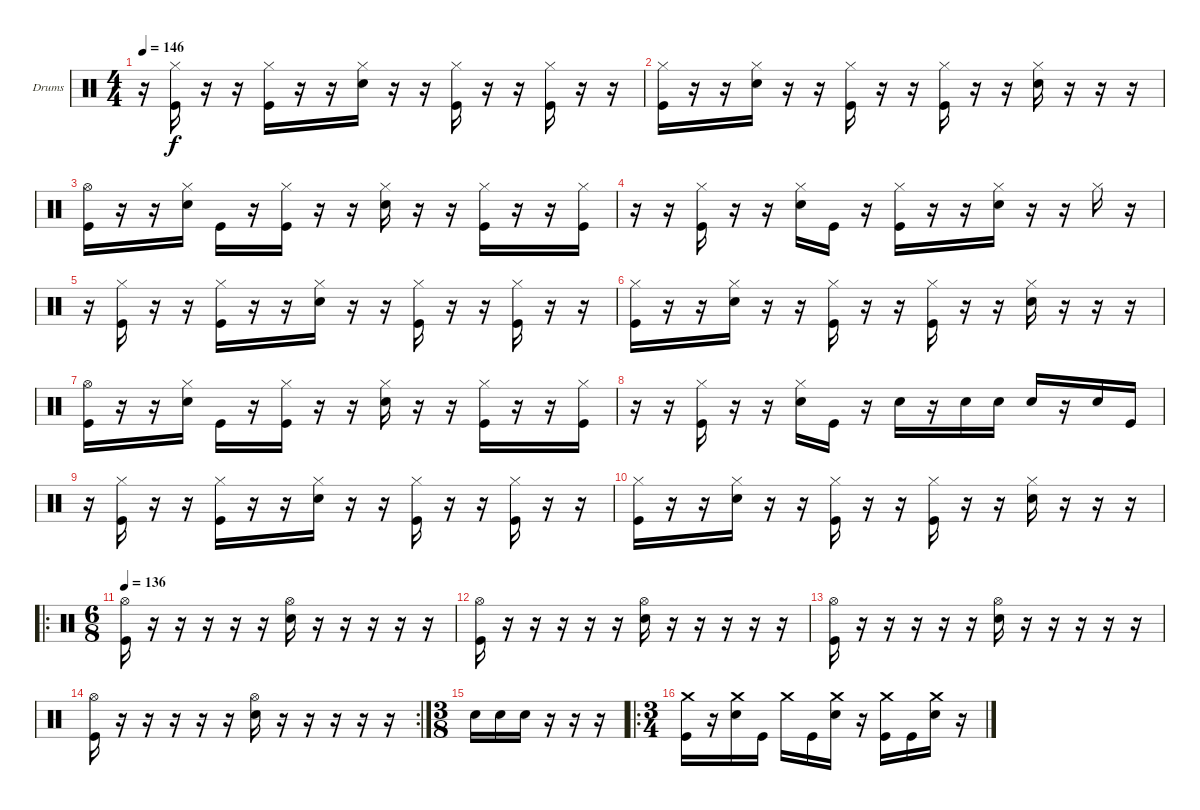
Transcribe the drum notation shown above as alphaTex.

\bracketExtendMode groupsimilarinstruments
\firstSystemTrackNameOrientation horizontal
\otherSystemsTrackNameOrientation horizontal
\track ("Drumkit" "Drums") {solo instrument percussion}
\staff {score}
\articulation defaults
\ts (4 4)
\tempo 146
\clef neutral
\ks c
r.16{dy f} ("Hi-Hat (closed)" "Kick (hit)").16 r.16 r.16 ("Hi-Hat (closed)" "Kick (hit)").16 r.16 r.16 ("Hi-Hat (closed)" "Snare (hit) 2").16 r.16 r.16 ("Hi-Hat (closed)" "Kick (hit)").16 r.16 r.16 ("Hi-Hat (closed)" "Kick (hit)").16 r.16 r.16 |
("Hi-Hat (closed)" "Kick (hit)").16 r.16 r.16 ("Hi-Hat (closed)" "Snare (hit) 2").16 r.16 r.16 ("Hi-Hat (closed)" "Kick (hit)").16 r.16 r.16 ("Hi-Hat (closed)" "Kick (hit)").16 r.16 r.16 ("Hi-Hat (closed)" "Snare (hit) 2").16 r.16 r.16 r.16 |
("Hi-Hat (open)" "Kick (hit)").16 r.16 r.16 ("Hi-Hat (closed)" "Snare (hit) 2").16 "Kick (hit)".16 r.16 ("Hi-Hat (closed)" "Kick (hit)").16 r.16 r.16 ("Hi-Hat (closed)" "Snare (hit) 2").16 r.16 r.16 ("Hi-Hat (closed)" "Kick (hit)").16 r.16 r.16 ("Hi-Hat (closed)" "Kick (hit)").16 |
r.16 r.16 ("Hi-Hat (closed)" "Kick (hit)").16 r.16 r.16 ("Hi-Hat (closed)" "Snare (hit) 2").16 "Kick (hit)".16 r.16 ("Hi-Hat (closed)" "Kick (hit)").16 r.16 r.16 ("Hi-Hat (closed)" "Snare (hit) 2").16 r.16 r.16 "Hi-Hat (closed)".16 r.16 |
r.16 ("Hi-Hat (closed)" "Kick (hit)").16 r.16 r.16 ("Hi-Hat (closed)" "Kick (hit)").16 r.16 r.16 ("Hi-Hat (closed)" "Snare (hit) 2").16 r.16 r.16 ("Hi-Hat (closed)" "Kick (hit)").16 r.16 r.16 ("Hi-Hat (closed)" "Kick (hit)").16 r.16 r.16 |
("Hi-Hat (closed)" "Kick (hit)").16 r.16 r.16 ("Hi-Hat (closed)" "Snare (hit) 2").16 r.16 r.16 ("Hi-Hat (closed)" "Kick (hit)").16 r.16 r.16 ("Hi-Hat (closed)" "Kick (hit)").16 r.16 r.16 ("Hi-Hat (closed)" "Snare (hit) 2").16 r.16 r.16 r.16 |
("Hi-Hat (open)" "Kick (hit)").16 r.16 r.16 ("Hi-Hat (closed)" "Snare (hit) 2").16 "Kick (hit)".16 r.16 ("Hi-Hat (closed)" "Kick (hit)").16 r.16 r.16 ("Hi-Hat (closed)" "Snare (hit) 2").16 r.16 r.16 ("Hi-Hat (closed)" "Kick (hit)").16 r.16 r.16 ("Hi-Hat (closed)" "Kick (hit)").16 |
r.16 r.16 ("Hi-Hat (closed)" "Kick (hit)").16 r.16 r.16 ("Hi-Hat (closed)" "Snare (hit) 2").16 "Kick (hit)".16 r.16 "Snare (hit) 2".16 r.16 "Snare (hit) 2".16 "Snare (hit) 2".16 "Snare (hit) 2".16 r.16 "Snare (hit) 2".16 "Kick (hit)".16 |
r.16 ("Hi-Hat (closed)" "Kick (hit)").16 r.16 r.16 ("Hi-Hat (closed)" "Kick (hit)").16 r.16 r.16 ("Hi-Hat (closed)" "Snare (hit) 2").16 r.16 r.16 ("Hi-Hat (closed)" "Kick (hit)").16 r.16 r.16 ("Hi-Hat (closed)" "Kick (hit)").16 r.16 r.16 |
("Hi-Hat (closed)" "Kick (hit)").16 r.16 r.16 ("Hi-Hat (closed)" "Snare (hit) 2").16 r.16 r.16 ("Hi-Hat (closed)" "Kick (hit)").16 r.16 r.16 ("Hi-Hat (closed)" "Kick (hit)").16 r.16 r.16 ("Hi-Hat (closed)" "Snare (hit) 2").16 r.16 r.16 r.16 |
\ro
\ts (6 8)
\beaming (8 3 3)
\tempo 136
("Hi-Hat (open)" "Kick (hit)").16 r.16 r.16 r.16 r.16 r.16 ("Hi-Hat (open)" "Snare (hit) 2").16 r.16 r.16 r.16 r.16 r.16 |
("Hi-Hat (open)" "Kick (hit)").16 r.16 r.16 r.16 r.16 r.16 ("Hi-Hat (open)" "Snare (hit) 2").16 r.16 r.16 r.16 r.16 r.16 |
("Hi-Hat (open)" "Kick (hit)").16 r.16 r.16 r.16 r.16 r.16 ("Hi-Hat (open)" "Snare (hit) 2").16 r.16 r.16 r.16 r.16 r.16 |
\rc 2
("Hi-Hat (open)" "Kick (hit)").16 r.16 r.16 r.16 r.16 r.16 ("Hi-Hat (open)" "Snare (hit) 2").16 r.16 r.16 r.16 r.16 r.16 |
\ts (3 8)
\beaming (8 3)
"Snare (hit) 2".16 "Snare (hit) 2".16 "Snare (hit) 2".16 r.16 r.16 r.16 |
\ro
\ts (3 4)
\beaming (8 2 2 2)
("Crash medium (hit)" "Kick (hit)").16 r.16 ("Crash medium (hit)" "Snare (hit) 2").16 "Kick (hit)".16 "Crash medium (hit)".16 "Kick (hit)".16 ("Crash medium (hit)" "Snare (hit) 2").16 r.16 ("Crash medium (hit)" "Kick (hit)").16 "Kick (hit)".16 ("Crash medium (hit)" "Snare (hit) 2").16 r.16
